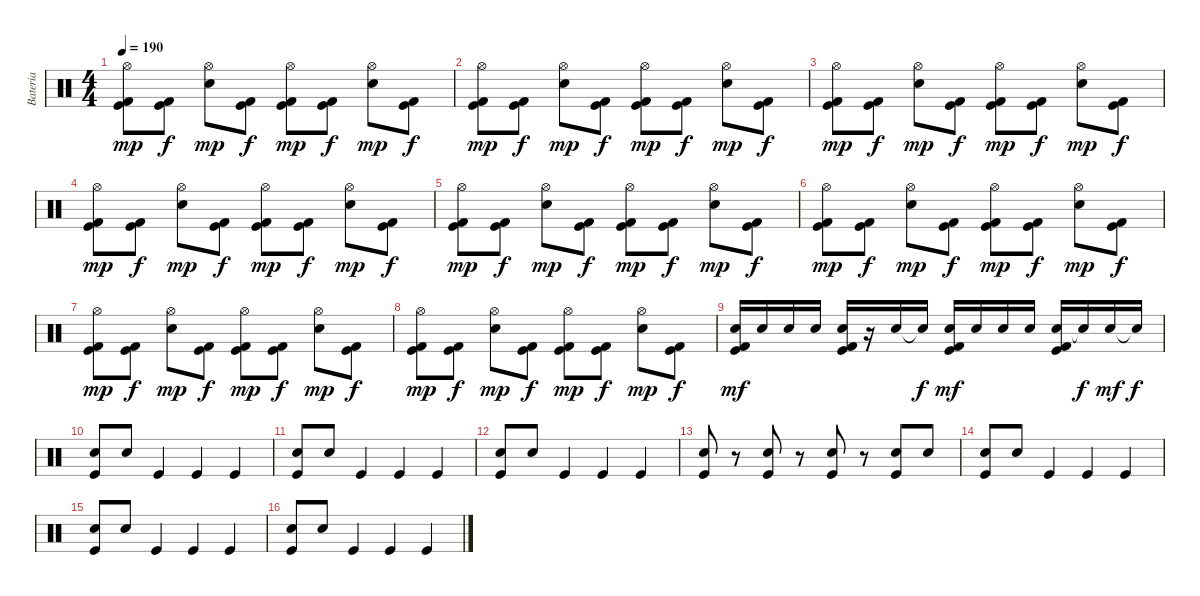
\track ("Bateria" "Bateria") {instrument percussion}
\staff {score}
\articulation defaults
\ts (4 4)
\tempo 190
\clef neutral
\ks c
("Kick (hit) 2" "Kick (hit)" "Hi-Hat (open)").8{dy mp} ("Kick (hit)" "Kick (hit) 2").8{dy f} ("Electric Snare (hit)" "Hi-Hat (open)").8{dy mp} ("Kick (hit) 2" "Kick (hit)").8{dy f} ("Kick (hit) 2" "Kick (hit)" "Hi-Hat (open)").8{dy mp} ("Kick (hit)" "Kick (hit) 2").8{dy f} ("Electric Snare (hit)" "Hi-Hat (open)").8{dy mp} ("Kick (hit)" "Kick (hit) 2").8{dy f} |
("Kick (hit) 2" "Kick (hit)" "Hi-Hat (open)").8{dy mp} ("Kick (hit)" "Kick (hit) 2").8{dy f} ("Electric Snare (hit)" "Hi-Hat (open)").8{dy mp} ("Kick (hit) 2" "Kick (hit)").8{dy f} ("Kick (hit) 2" "Kick (hit)" "Hi-Hat (open)").8{dy mp} ("Kick (hit)" "Kick (hit) 2").8{dy f} ("Electric Snare (hit)" "Hi-Hat (open)").8{dy mp} ("Kick (hit)" "Kick (hit) 2").8{dy f} |
("Kick (hit) 2" "Kick (hit)" "Hi-Hat (open)").8{dy mp} ("Kick (hit)" "Kick (hit) 2").8{dy f} ("Electric Snare (hit)" "Hi-Hat (open)").8{dy mp} ("Kick (hit) 2" "Kick (hit)").8{dy f} ("Kick (hit) 2" "Kick (hit)" "Hi-Hat (open)").8{dy mp} ("Kick (hit)" "Kick (hit) 2").8{dy f} ("Electric Snare (hit)" "Hi-Hat (open)").8{dy mp} ("Kick (hit)" "Kick (hit) 2").8{dy f} |
("Kick (hit) 2" "Kick (hit)" "Hi-Hat (open)").8{dy mp} ("Kick (hit)" "Kick (hit) 2").8{dy f} ("Electric Snare (hit)" "Hi-Hat (open)").8{dy mp} ("Kick (hit) 2" "Kick (hit)").8{dy f} ("Kick (hit) 2" "Kick (hit)" "Hi-Hat (open)").8{dy mp} ("Kick (hit)" "Kick (hit) 2").8{dy f} ("Electric Snare (hit)" "Hi-Hat (open)").8{dy mp} ("Kick (hit)" "Kick (hit) 2").8{dy f} |
("Kick (hit) 2" "Kick (hit)" "Hi-Hat (open)").8{dy mp} ("Kick (hit)" "Kick (hit) 2").8{dy f} ("Electric Snare (hit)" "Hi-Hat (open)").8{dy mp} ("Kick (hit) 2" "Kick (hit)").8{dy f} ("Kick (hit) 2" "Kick (hit)" "Hi-Hat (open)").8{dy mp} ("Kick (hit)" "Kick (hit) 2").8{dy f} ("Electric Snare (hit)" "Hi-Hat (open)").8{dy mp} ("Kick (hit)" "Kick (hit) 2").8{dy f} |
("Kick (hit) 2" "Kick (hit)" "Hi-Hat (open)").8{dy mp} ("Kick (hit)" "Kick (hit) 2").8{dy f} ("Electric Snare (hit)" "Hi-Hat (open)").8{dy mp} ("Kick (hit) 2" "Kick (hit)").8{dy f} ("Kick (hit) 2" "Kick (hit)" "Hi-Hat (open)").8{dy mp} ("Kick (hit)" "Kick (hit) 2").8{dy f} ("Electric Snare (hit)" "Hi-Hat (open)").8{dy mp} ("Kick (hit)" "Kick (hit) 2").8{dy f} |
("Kick (hit) 2" "Kick (hit)" "Hi-Hat (open)").8{dy mp} ("Kick (hit)" "Kick (hit) 2").8{dy f} ("Electric Snare (hit)" "Hi-Hat (open)").8{dy mp} ("Kick (hit) 2" "Kick (hit)").8{dy f} ("Kick (hit) 2" "Kick (hit)" "Hi-Hat (open)").8{dy mp} ("Kick (hit)" "Kick (hit) 2").8{dy f} ("Electric Snare (hit)" "Hi-Hat (open)").8{dy mp} ("Kick (hit)" "Kick (hit) 2").8{dy f} |
("Kick (hit) 2" "Kick (hit)" "Hi-Hat (open)").8{dy mp} ("Kick (hit)" "Kick (hit) 2").8{dy f} ("Electric Snare (hit)" "Hi-Hat (open)").8{dy mp} ("Kick (hit) 2" "Kick (hit)").8{dy f} ("Kick (hit) 2" "Kick (hit)" "Hi-Hat (open)").8{dy mp} ("Kick (hit)" "Kick (hit) 2").8{dy f} ("Electric Snare (hit)" "Hi-Hat (open)").8{dy mp} ("Kick (hit)" "Kick (hit) 2").8{dy f} |
("Electric Snare (hit)" "Kick (hit)" "Kick (hit) 2").16{dy mf} "Electric Snare (hit)".16 "Electric Snare (hit)".16 "Electric Snare (hit)".16 ("Electric Snare (hit)" "Kick (hit)" "Kick (hit) 2").16 r.16 "Electric Snare (hit)".16 "Electric Snare (hit)"{t}.16{dy f} ("Electric Snare (hit)" "Kick (hit)" "Kick (hit) 2").16{dy mf} "Electric Snare (hit)".16 "Electric Snare (hit)".16 "Electric Snare (hit)".16 ("Electric Snare (hit)" "Kick (hit)" "Kick (hit) 2").16 "Electric Snare (hit)"{t}.16{dy f} "Electric Snare (hit)".16{dy mf} "Electric Snare (hit)"{t}.16{dy f} |
("Electric Snare (hit)" "Kick (hit)").8 "Electric Snare (hit)".8 "Kick (hit)".4 "Kick (hit)".4 "Kick (hit)".4 |
("Electric Snare (hit)" "Kick (hit)").8 "Electric Snare (hit)".8 "Kick (hit)".4 "Kick (hit)".4 "Kick (hit)".4 |
("Electric Snare (hit)" "Kick (hit)").8 "Electric Snare (hit)".8 "Kick (hit)".4 "Kick (hit)".4 "Kick (hit)".4 |
("Electric Snare (hit)" "Kick (hit)").8 r.8 ("Electric Snare (hit)" "Kick (hit)").8 r.8 ("Electric Snare (hit)" "Kick (hit)").8 r.8 ("Electric Snare (hit)" "Kick (hit)").8 "Electric Snare (hit)".8 |
("Electric Snare (hit)" "Kick (hit)").8 "Electric Snare (hit)".8 "Kick (hit)".4 "Kick (hit)".4 "Kick (hit)".4 |
("Electric Snare (hit)" "Kick (hit)").8 "Electric Snare (hit)".8 "Kick (hit)".4 "Kick (hit)".4 "Kick (hit)".4 |
("Electric Snare (hit)" "Kick (hit)").8 "Electric Snare (hit)".8 "Kick (hit)".4 "Kick (hit)".4 "Kick (hit)".4
